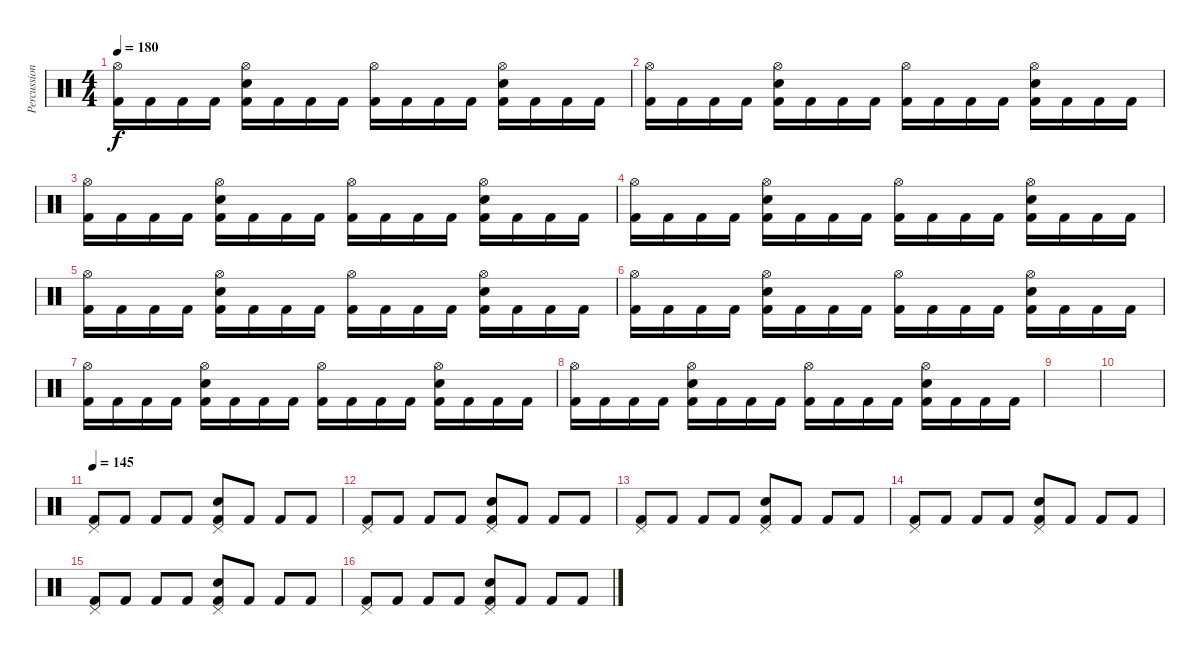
\track ("Percussion" "Percussion") {instrument percussion}
\staff {score}
\articulation defaults
\ts (4 4)
\tempo 180
\clef neutral
\ks c
("Hi-Hat (open)" "Kick (hit) 2").16{dy f} "Kick (hit) 2".16 "Kick (hit) 2".16 "Kick (hit) 2".16 ("Hi-Hat (open)" "Snare (hit) 2" "Kick (hit) 2").16 "Kick (hit) 2".16 "Kick (hit) 2".16 "Kick (hit) 2".16 ("Hi-Hat (open)" "Kick (hit) 2").16 "Kick (hit) 2".16 "Kick (hit) 2".16 "Kick (hit) 2".16 ("Hi-Hat (open)" "Snare (hit) 2" "Kick (hit) 2").16 "Kick (hit) 2".16 "Kick (hit) 2".16 "Kick (hit) 2".16 |
("Hi-Hat (open)" "Kick (hit) 2").16 "Kick (hit) 2".16 "Kick (hit) 2".16 "Kick (hit) 2".16 ("Hi-Hat (open)" "Snare (hit) 2" "Kick (hit) 2").16 "Kick (hit) 2".16 "Kick (hit) 2".16 "Kick (hit) 2".16 ("Hi-Hat (open)" "Kick (hit) 2").16 "Kick (hit) 2".16 "Kick (hit) 2".16 "Kick (hit) 2".16 ("Hi-Hat (open)" "Snare (hit) 2" "Kick (hit) 2").16 "Kick (hit) 2".16 "Kick (hit) 2".16 "Kick (hit) 2".16 |
("Hi-Hat (open)" "Kick (hit) 2").16 "Kick (hit) 2".16 "Kick (hit) 2".16 "Kick (hit) 2".16 ("Hi-Hat (open)" "Snare (hit) 2" "Kick (hit) 2").16 "Kick (hit) 2".16 "Kick (hit) 2".16 "Kick (hit) 2".16 ("Hi-Hat (open)" "Kick (hit) 2").16 "Kick (hit) 2".16 "Kick (hit) 2".16 "Kick (hit) 2".16 ("Hi-Hat (open)" "Snare (hit) 2" "Kick (hit) 2").16 "Kick (hit) 2".16 "Kick (hit) 2".16 "Kick (hit) 2".16 |
("Hi-Hat (open)" "Kick (hit) 2").16 "Kick (hit) 2".16 "Kick (hit) 2".16 "Kick (hit) 2".16 ("Hi-Hat (open)" "Snare (hit) 2" "Kick (hit) 2").16 "Kick (hit) 2".16 "Kick (hit) 2".16 "Kick (hit) 2".16 ("Hi-Hat (open)" "Kick (hit) 2").16 "Kick (hit) 2".16 "Kick (hit) 2".16 "Kick (hit) 2".16 ("Hi-Hat (open)" "Snare (hit) 2" "Kick (hit) 2").16 "Kick (hit) 2".16 "Kick (hit) 2".16 "Kick (hit) 2".16 |
("Hi-Hat (open)" "Kick (hit) 2").16 "Kick (hit) 2".16 "Kick (hit) 2".16 "Kick (hit) 2".16 ("Hi-Hat (open)" "Snare (hit) 2" "Kick (hit) 2").16 "Kick (hit) 2".16 "Kick (hit) 2".16 "Kick (hit) 2".16 ("Hi-Hat (open)" "Kick (hit) 2").16 "Kick (hit) 2".16 "Kick (hit) 2".16 "Kick (hit) 2".16 ("Hi-Hat (open)" "Snare (hit) 2" "Kick (hit) 2").16 "Kick (hit) 2".16 "Kick (hit) 2".16 "Kick (hit) 2".16 |
("Hi-Hat (open)" "Kick (hit) 2").16 "Kick (hit) 2".16 "Kick (hit) 2".16 "Kick (hit) 2".16 ("Hi-Hat (open)" "Snare (hit) 2" "Kick (hit) 2").16 "Kick (hit) 2".16 "Kick (hit) 2".16 "Kick (hit) 2".16 ("Hi-Hat (open)" "Kick (hit) 2").16 "Kick (hit) 2".16 "Kick (hit) 2".16 "Kick (hit) 2".16 ("Hi-Hat (open)" "Snare (hit) 2" "Kick (hit) 2").16 "Kick (hit) 2".16 "Kick (hit) 2".16 "Kick (hit) 2".16 |
("Hi-Hat (open)" "Kick (hit) 2").16 "Kick (hit) 2".16 "Kick (hit) 2".16 "Kick (hit) 2".16 ("Hi-Hat (open)" "Snare (hit) 2" "Kick (hit) 2").16 "Kick (hit) 2".16 "Kick (hit) 2".16 "Kick (hit) 2".16 ("Hi-Hat (open)" "Kick (hit) 2").16 "Kick (hit) 2".16 "Kick (hit) 2".16 "Kick (hit) 2".16 ("Hi-Hat (open)" "Snare (hit) 2" "Kick (hit) 2").16 "Kick (hit) 2".16 "Kick (hit) 2".16 "Kick (hit) 2".16 |
("Hi-Hat (open)" "Kick (hit) 2").16 "Kick (hit) 2".16 "Kick (hit) 2".16 "Kick (hit) 2".16 ("Hi-Hat (open)" "Snare (hit) 2" "Kick (hit) 2").16 "Kick (hit) 2".16 "Kick (hit) 2".16 "Kick (hit) 2".16 ("Hi-Hat (open)" "Kick (hit) 2").16 "Kick (hit) 2".16 "Kick (hit) 2".16 "Kick (hit) 2".16 ("Hi-Hat (open)" "Snare (hit) 2" "Kick (hit) 2").16 "Kick (hit) 2".16 "Kick (hit) 2".16 "Kick (hit) 2".16 |
|
|
\tempo 145
("Pedal Hi-Hat (hit)" "Kick (hit) 2").8 "Kick (hit) 2".8 "Kick (hit) 2".8 "Kick (hit) 2".8 ("Electric Snare (hit)" "Pedal Hi-Hat (hit)" "Kick (hit) 2").8 "Kick (hit) 2".8 "Kick (hit) 2".8 "Kick (hit) 2".8 |
("Pedal Hi-Hat (hit)" "Kick (hit) 2").8 "Kick (hit) 2".8 "Kick (hit) 2".8 "Kick (hit) 2".8 ("Electric Snare (hit)" "Pedal Hi-Hat (hit)" "Kick (hit) 2").8 "Kick (hit) 2".8 "Kick (hit) 2".8 "Kick (hit) 2".8 |
("Pedal Hi-Hat (hit)" "Kick (hit) 2").8 "Kick (hit) 2".8 "Kick (hit) 2".8 "Kick (hit) 2".8 ("Electric Snare (hit)" "Pedal Hi-Hat (hit)" "Kick (hit) 2").8 "Kick (hit) 2".8 "Kick (hit) 2".8 "Kick (hit) 2".8 |
("Pedal Hi-Hat (hit)" "Kick (hit) 2").8 "Kick (hit) 2".8 "Kick (hit) 2".8 "Kick (hit) 2".8 ("Electric Snare (hit)" "Pedal Hi-Hat (hit)" "Kick (hit) 2").8 "Kick (hit) 2".8 "Kick (hit) 2".8 "Kick (hit) 2".8 |
("Pedal Hi-Hat (hit)" "Kick (hit) 2").8 "Kick (hit) 2".8 "Kick (hit) 2".8 "Kick (hit) 2".8 ("Electric Snare (hit)" "Pedal Hi-Hat (hit)" "Kick (hit) 2").8 "Kick (hit) 2".8 "Kick (hit) 2".8 "Kick (hit) 2".8 |
("Pedal Hi-Hat (hit)" "Kick (hit) 2").8 "Kick (hit) 2".8 "Kick (hit) 2".8 "Kick (hit) 2".8 ("Electric Snare (hit)" "Pedal Hi-Hat (hit)" "Kick (hit) 2").8 "Kick (hit) 2".8 "Kick (hit) 2".8 "Kick (hit) 2".8
